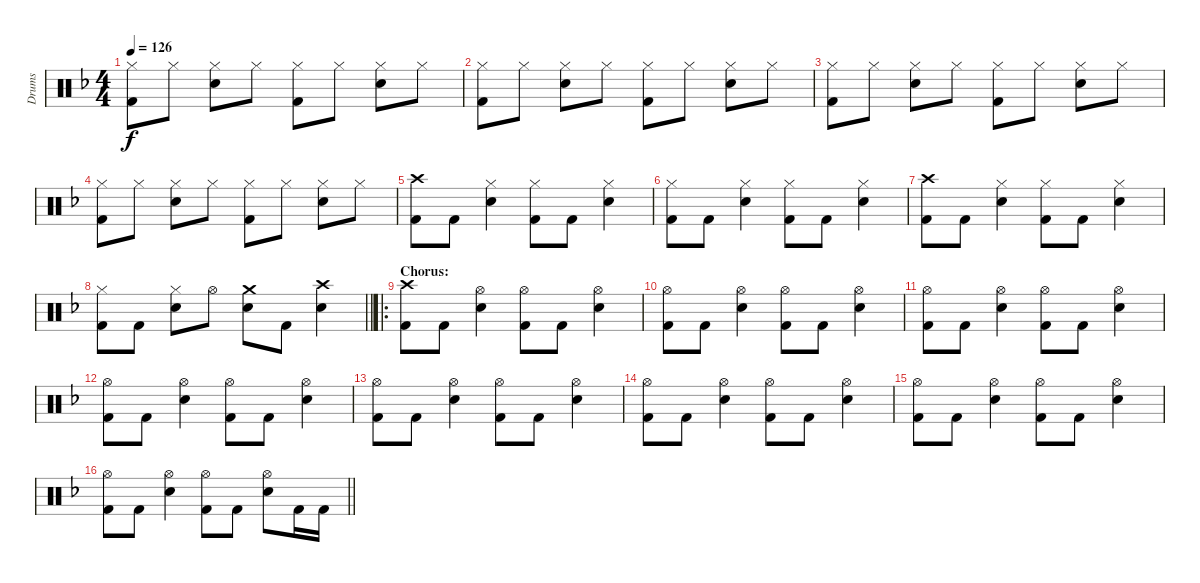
\track ("Drums" "Drums") {instrument percussion}
\staff {score}
\articulation defaults
\ts (4 4)
\tempo 126
\clef neutral
\ks dminor
("Hi-Hat (closed)" "Kick (hit) 2").8{dy f} "Hi-Hat (closed)".8 ("Hi-Hat (closed)" "Electric Snare (hit)").8 "Hi-Hat (closed)".8 ("Hi-Hat (closed)" "Kick (hit) 2").8 "Hi-Hat (closed)".8 ("Hi-Hat (closed)" "Electric Snare (hit)").8 "Hi-Hat (closed)".8 |
("Hi-Hat (closed)" "Kick (hit) 2").8 "Hi-Hat (closed)".8 ("Hi-Hat (closed)" "Electric Snare (hit)").8 "Hi-Hat (closed)".8 ("Hi-Hat (closed)" "Kick (hit) 2").8 "Hi-Hat (closed)".8 ("Hi-Hat (closed)" "Electric Snare (hit)").8 "Hi-Hat (closed)".8 |
("Hi-Hat (closed)" "Kick (hit) 2").8 "Hi-Hat (closed)".8 ("Hi-Hat (closed)" "Electric Snare (hit)").8 "Hi-Hat (closed)".8 ("Hi-Hat (closed)" "Kick (hit) 2").8 "Hi-Hat (closed)".8 ("Hi-Hat (closed)" "Electric Snare (hit)").8 "Hi-Hat (closed)".8 |
("Hi-Hat (closed)" "Kick (hit) 2").8 "Hi-Hat (closed)".8 ("Hi-Hat (closed)" "Electric Snare (hit)").8 "Hi-Hat (closed)".8 ("Hi-Hat (closed)" "Kick (hit) 2").8 "Hi-Hat (closed)".8 ("Hi-Hat (closed)" "Electric Snare (hit)").8 "Hi-Hat (closed)".8 |
("Crash high (hit)" "Kick (hit) 2").8 "Kick (hit) 2".8 ("Hi-Hat (closed)" "Electric Snare (hit)").4 ("Hi-Hat (closed)" "Kick (hit) 2").8 "Kick (hit) 2".8 ("Hi-Hat (closed)" "Electric Snare (hit)").4 |
("Hi-Hat (closed)" "Kick (hit) 2").8 "Kick (hit) 2".8 ("Hi-Hat (closed)" "Electric Snare (hit)").4 ("Hi-Hat (closed)" "Kick (hit) 2").8 "Kick (hit) 2".8 ("Hi-Hat (closed)" "Electric Snare (hit)").4 |
("Crash high (hit)" "Kick (hit) 2").8 "Kick (hit) 2".8 ("Hi-Hat (closed)" "Electric Snare (hit)").4 ("Hi-Hat (closed)" "Kick (hit) 2").8 "Kick (hit) 2".8 ("Hi-Hat (closed)" "Electric Snare (hit)").4 |
\barLineRight lightlight
("Hi-Hat (closed)" "Kick (hit) 2").8 "Kick (hit) 2".8 ("Hi-Hat (closed)" "Electric Snare (hit)").8 "Hi-Hat (open)".8 ("Crash medium (hit)" "Electric Snare (hit)").8 "Kick (hit) 2".8 ("Crash high (hit)" "Electric Snare (hit)").4 |
\ro
\section ("" "Chorus:")
("Crash high (hit)" "Kick (hit) 2").8 "Kick (hit) 2".8 ("Hi-Hat (open)" "Electric Snare (hit)").4 ("Hi-Hat (open)" "Kick (hit) 2").8 "Kick (hit) 2".8 ("Hi-Hat (open)" "Electric Snare (hit)").4 |
("Hi-Hat (open)" "Kick (hit) 2").8 "Kick (hit) 2".8 ("Hi-Hat (open)" "Electric Snare (hit)").4 ("Hi-Hat (open)" "Kick (hit) 2").8 "Kick (hit) 2".8 ("Hi-Hat (open)" "Electric Snare (hit)").4 |
("Hi-Hat (open)" "Kick (hit) 2").8 "Kick (hit) 2".8 ("Hi-Hat (open)" "Electric Snare (hit)").4 ("Hi-Hat (open)" "Kick (hit) 2").8 "Kick (hit) 2".8 ("Hi-Hat (open)" "Electric Snare (hit)").4 |
("Hi-Hat (open)" "Kick (hit) 2").8 "Kick (hit) 2".8 ("Hi-Hat (open)" "Electric Snare (hit)").4 ("Hi-Hat (open)" "Kick (hit) 2").8 "Kick (hit) 2".8 ("Hi-Hat (open)" "Electric Snare (hit)").4 |
("Hi-Hat (open)" "Kick (hit) 2").8 "Kick (hit) 2".8 ("Hi-Hat (open)" "Electric Snare (hit)").4 ("Hi-Hat (open)" "Kick (hit) 2").8 "Kick (hit) 2".8 ("Hi-Hat (open)" "Electric Snare (hit)").4 |
("Hi-Hat (open)" "Kick (hit) 2").8 "Kick (hit) 2".8 ("Hi-Hat (open)" "Electric Snare (hit)").4 ("Hi-Hat (open)" "Kick (hit) 2").8 "Kick (hit) 2".8 ("Hi-Hat (open)" "Electric Snare (hit)").4 |
("Hi-Hat (open)" "Kick (hit) 2").8 "Kick (hit) 2".8 ("Hi-Hat (open)" "Electric Snare (hit)").4 ("Hi-Hat (open)" "Kick (hit) 2").8 "Kick (hit) 2".8 ("Hi-Hat (open)" "Electric Snare (hit)").4 |
\barLineRight lightlight
("Hi-Hat (open)" "Kick (hit) 2").8 "Kick (hit) 2".8 ("Hi-Hat (open)" "Electric Snare (hit)").4 ("Hi-Hat (open)" "Kick (hit) 2").8 "Kick (hit) 2".8 ("Hi-Hat (open)" "Electric Snare (hit)").8 "Kick (hit) 2".16 "Kick (hit) 2".16
